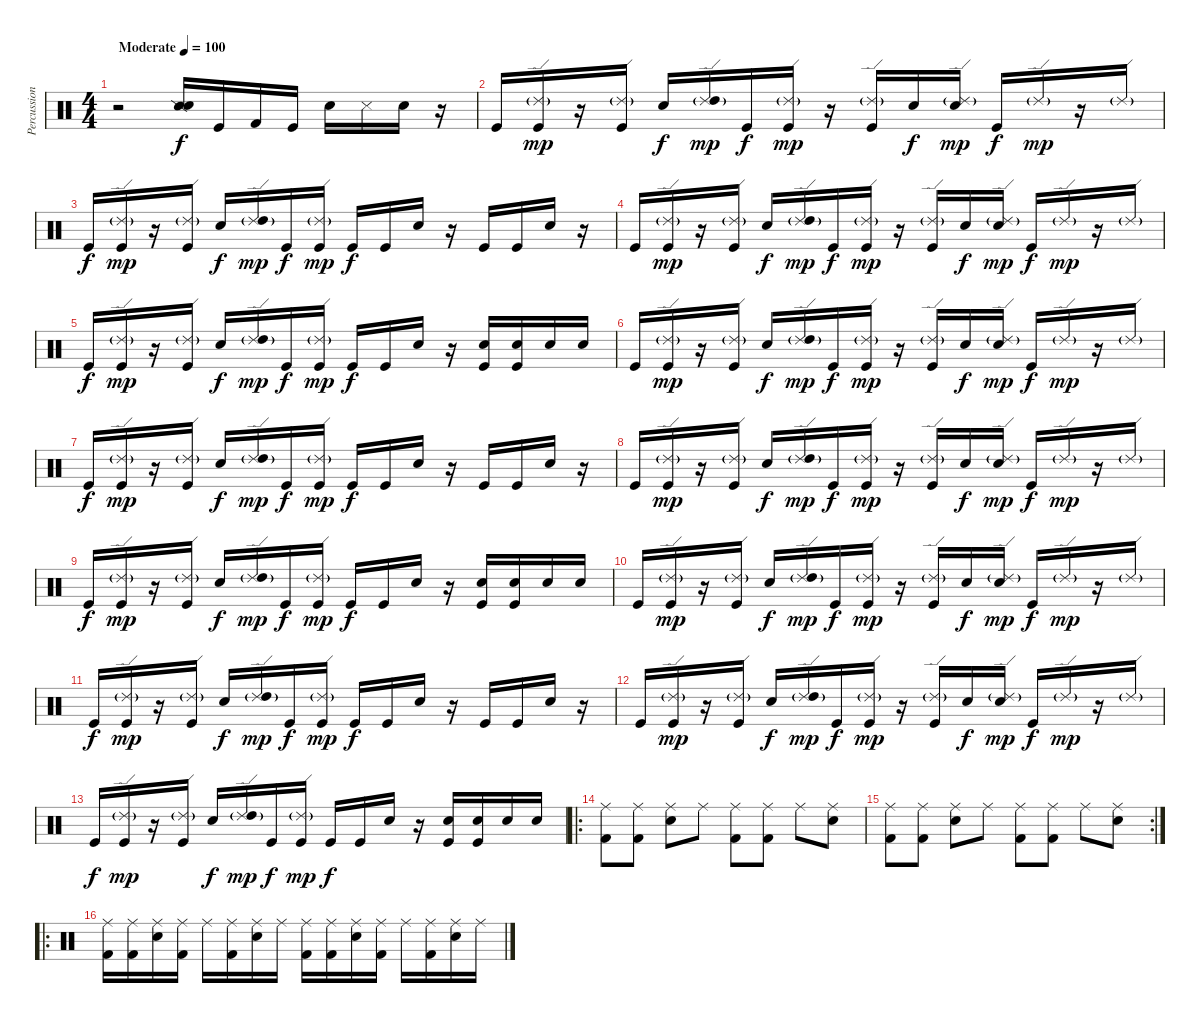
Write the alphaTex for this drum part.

\track ("Percussions" "Percussion") {instrument percussion}
\staff {score}
\articulation defaults
\ts (4 4)
\tempo (100 "Moderate")
\clef neutral
\ks c
r.2{dy f volume 9} ("Snare (side stick) 2" "Snare (hit) 2").16 "Kick (hit)".16 "Kick (hit) 2".16 "Kick (hit)".16 "Snare (hit) 2".16 "Snare (side stick) 3".16 "Hand Clap (hit)".16 r.16 |
"Kick (hit)".16 ("Ride (edge) 2"{g} "Kick (hit)").16{dy mp} r.16 ("Ride (edge) 2"{g} "Kick (hit)").16 "Snare (hit) 2".16{dy f} ("Ride (edge) 2"{g} "High Tom (hit)").16{dy mp} "Kick (hit)".16{dy f} ("Ride (edge) 2"{g} "Kick (hit)").16{dy mp} r.16 ("Ride (edge) 2"{g} "Kick (hit)").16 "Snare (hit) 2".16{dy f} ("Ride (edge) 2"{g} "Snare (hit) 2").16{dy mp} "Kick (hit)".16{dy f} "Ride (edge) 2"{g}.16{dy mp} r.16 "Ride (edge) 2"{g}.16 |
"Kick (hit)".16{dy f} ("Ride (edge) 2"{g} "Kick (hit)").16{dy mp} r.16 ("Ride (edge) 2"{g} "Kick (hit)").16 "Snare (hit) 2".16{dy f} ("Ride (edge) 2"{g} "High Tom (hit)").16{dy mp} "Kick (hit)".16{dy f} ("Ride (edge) 2"{g} "Kick (hit)").16{dy mp} "Kick (hit)".16{dy f} "Kick (hit)".16 "Snare (hit) 2".16 r.16 "Kick (hit)".16 "Kick (hit)".16 "Snare (hit) 2".16 r.16 |
"Kick (hit)".16 ("Ride (edge) 2"{g} "Kick (hit)").16{dy mp} r.16 ("Ride (edge) 2"{g} "Kick (hit)").16 "Snare (hit) 2".16{dy f} ("Ride (edge) 2"{g} "High Tom (hit)").16{dy mp} "Kick (hit)".16{dy f} ("Ride (edge) 2"{g} "Kick (hit)").16{dy mp} r.16 ("Ride (edge) 2"{g} "Kick (hit)").16 "Snare (hit) 2".16{dy f} ("Ride (edge) 2"{g} "Snare (hit) 2").16{dy mp} "Kick (hit)".16{dy f} "Ride (edge) 2"{g}.16{dy mp} r.16 "Ride (edge) 2"{g}.16 |
"Kick (hit)".16{dy f} ("Ride (edge) 2"{g} "Kick (hit)").16{dy mp} r.16 ("Ride (edge) 2"{g} "Kick (hit)").16 "Snare (hit) 2".16{dy f} ("Ride (edge) 2"{g} "High Tom (hit)").16{dy mp} "Kick (hit)".16{dy f} ("Ride (edge) 2"{g} "Kick (hit)").16{dy mp} "Kick (hit)".16{dy f} "Kick (hit)".16 "Snare (hit) 2".16 r.16 ("Electric Snare (hit)" "Kick (hit)").16 ("Electric Snare (hit)" "Kick (hit)").16 "Electric Snare (hit)".16 "Electric Snare (hit)".16 |
"Kick (hit)".16{volume 16} ("Ride (edge) 2"{g} "Kick (hit)").16{dy mp} r.16 ("Ride (edge) 2"{g} "Kick (hit)").16 "Snare (hit) 2".16{dy f} ("Ride (edge) 2"{g} "High Tom (hit)").16{dy mp} "Kick (hit)".16{dy f} ("Ride (edge) 2"{g} "Kick (hit)").16{dy mp} r.16 ("Ride (edge) 2"{g} "Kick (hit)").16 "Snare (hit) 2".16{dy f} ("Ride (edge) 2"{g} "Snare (hit) 2").16{dy mp} "Kick (hit)".16{dy f} "Ride (edge) 2"{g}.16{dy mp} r.16 "Ride (edge) 2"{g}.16 |
"Kick (hit)".16{dy f} ("Ride (edge) 2"{g} "Kick (hit)").16{dy mp} r.16 ("Ride (edge) 2"{g} "Kick (hit)").16 "Snare (hit) 2".16{dy f} ("Ride (edge) 2"{g} "High Tom (hit)").16{dy mp} "Kick (hit)".16{dy f} ("Ride (edge) 2"{g} "Kick (hit)").16{dy mp} "Kick (hit)".16{dy f} "Kick (hit)".16 "Snare (hit) 2".16 r.16 "Kick (hit)".16 "Kick (hit)".16 "Snare (hit) 2".16 r.16 |
"Kick (hit)".16 ("Ride (edge) 2"{g} "Kick (hit)").16{dy mp} r.16 ("Ride (edge) 2"{g} "Kick (hit)").16 "Snare (hit) 2".16{dy f} ("Ride (edge) 2"{g} "High Tom (hit)").16{dy mp} "Kick (hit)".16{dy f} ("Ride (edge) 2"{g} "Kick (hit)").16{dy mp} r.16 ("Ride (edge) 2"{g} "Kick (hit)").16 "Snare (hit) 2".16{dy f} ("Ride (edge) 2"{g} "Snare (hit) 2").16{dy mp} "Kick (hit)".16{dy f} "Ride (edge) 2"{g}.16{dy mp} r.16 "Ride (edge) 2"{g}.16 |
"Kick (hit)".16{dy f} ("Ride (edge) 2"{g} "Kick (hit)").16{dy mp} r.16 ("Ride (edge) 2"{g} "Kick (hit)").16 "Snare (hit) 2".16{dy f} ("Ride (edge) 2"{g} "High Tom (hit)").16{dy mp} "Kick (hit)".16{dy f} ("Ride (edge) 2"{g} "Kick (hit)").16{dy mp} "Kick (hit)".16{dy f} "Kick (hit)".16 "Snare (hit) 2".16 r.16 ("Electric Snare (hit)" "Kick (hit)").16 ("Electric Snare (hit)" "Kick (hit)").16 "Electric Snare (hit)".16 "Electric Snare (hit)".16 |
"Kick (hit)".16 ("Ride (edge) 2"{g} "Kick (hit)").16{dy mp} r.16 ("Ride (edge) 2"{g} "Kick (hit)").16 "Snare (hit) 2".16{dy f} ("Ride (edge) 2"{g} "High Tom (hit)").16{dy mp} "Kick (hit)".16{dy f} ("Ride (edge) 2"{g} "Kick (hit)").16{dy mp} r.16 ("Ride (edge) 2"{g} "Kick (hit)").16 "Snare (hit) 2".16{dy f} ("Ride (edge) 2"{g} "Snare (hit) 2").16{dy mp} "Kick (hit)".16{dy f} "Ride (edge) 2"{g}.16{dy mp} r.16 "Ride (edge) 2"{g}.16 |
"Kick (hit)".16{dy f} ("Ride (edge) 2"{g} "Kick (hit)").16{dy mp} r.16 ("Ride (edge) 2"{g} "Kick (hit)").16 "Snare (hit) 2".16{dy f} ("Ride (edge) 2"{g} "High Tom (hit)").16{dy mp} "Kick (hit)".16{dy f} ("Ride (edge) 2"{g} "Kick (hit)").16{dy mp} "Kick (hit)".16{dy f} "Kick (hit)".16 "Snare (hit) 2".16 r.16 "Kick (hit)".16 "Kick (hit)".16 "Snare (hit) 2".16 r.16 |
"Kick (hit)".16 ("Ride (edge) 2"{g} "Kick (hit)").16{dy mp} r.16 ("Ride (edge) 2"{g} "Kick (hit)").16 "Snare (hit) 2".16{dy f} ("Ride (edge) 2"{g} "High Tom (hit)").16{dy mp} "Kick (hit)".16{dy f} ("Ride (edge) 2"{g} "Kick (hit)").16{dy mp} r.16 ("Ride (edge) 2"{g} "Kick (hit)").16 "Snare (hit) 2".16{dy f} ("Ride (edge) 2"{g} "Snare (hit) 2").16{dy mp} "Kick (hit)".16{dy f} "Ride (edge) 2"{g}.16{dy mp} r.16 "Ride (edge) 2"{g}.16 |
"Kick (hit)".16{dy f} ("Ride (edge) 2"{g} "Kick (hit)").16{dy mp} r.16 ("Ride (edge) 2"{g} "Kick (hit)").16 "Snare (hit) 2".16{dy f} ("Ride (edge) 2"{g} "High Tom (hit)").16{dy mp} "Kick (hit)".16{dy f} ("Ride (edge) 2"{g} "Kick (hit)").16{dy mp} "Kick (hit)".16{dy f} "Kick (hit)".16 "Snare (hit) 2".16 r.16 ("Electric Snare (hit)" "Kick (hit)").16 ("Electric Snare (hit)" "Kick (hit)").16 "Electric Snare (hit)".16 "Electric Snare (hit)".16 |
\ro
("Ride (middle)" "Kick (hit) 2").8 ("Ride (middle)" "Kick (hit) 2").8 ("Ride (middle)" "Snare (hit) 2").8 "Ride (middle)".8 ("Ride (middle)" "Kick (hit) 2").8 ("Ride (middle)" "Kick (hit) 2").8 "Ride (middle)".8 ("Ride (middle)" "Snare (hit) 2").8 |
\rc 2
("Ride (middle)" "Kick (hit) 2").8 ("Ride (middle)" "Kick (hit) 2").8 ("Ride (middle)" "Snare (hit) 2").8 "Ride (middle)".8 ("Ride (middle)" "Kick (hit) 2").8 ("Ride (middle)" "Kick (hit) 2").8 "Ride (middle)".8 ("Ride (middle)" "Snare (hit) 2").8 |
\ro
("Ride (middle)" "Kick (hit) 2").16 ("Ride (middle)" "Kick (hit) 2").16 ("Ride (middle)" "Snare (hit) 2").16 ("Ride (middle)" "Kick (hit) 2").16 "Ride (middle)".16 ("Ride (middle)" "Kick (hit) 2").16 ("Ride (middle)" "Snare (hit) 2").16 "Ride (middle)".16 ("Ride (middle)" "Kick (hit) 2").16 ("Ride (middle)" "Kick (hit) 2").16 ("Ride (middle)" "Snare (hit) 2").16 ("Ride (middle)" "Kick (hit) 2").16 "Ride (middle)".16 ("Ride (middle)" "Kick (hit) 2").16 ("Ride (middle)" "Snare (hit) 2").16 "Ride (middle)".16
